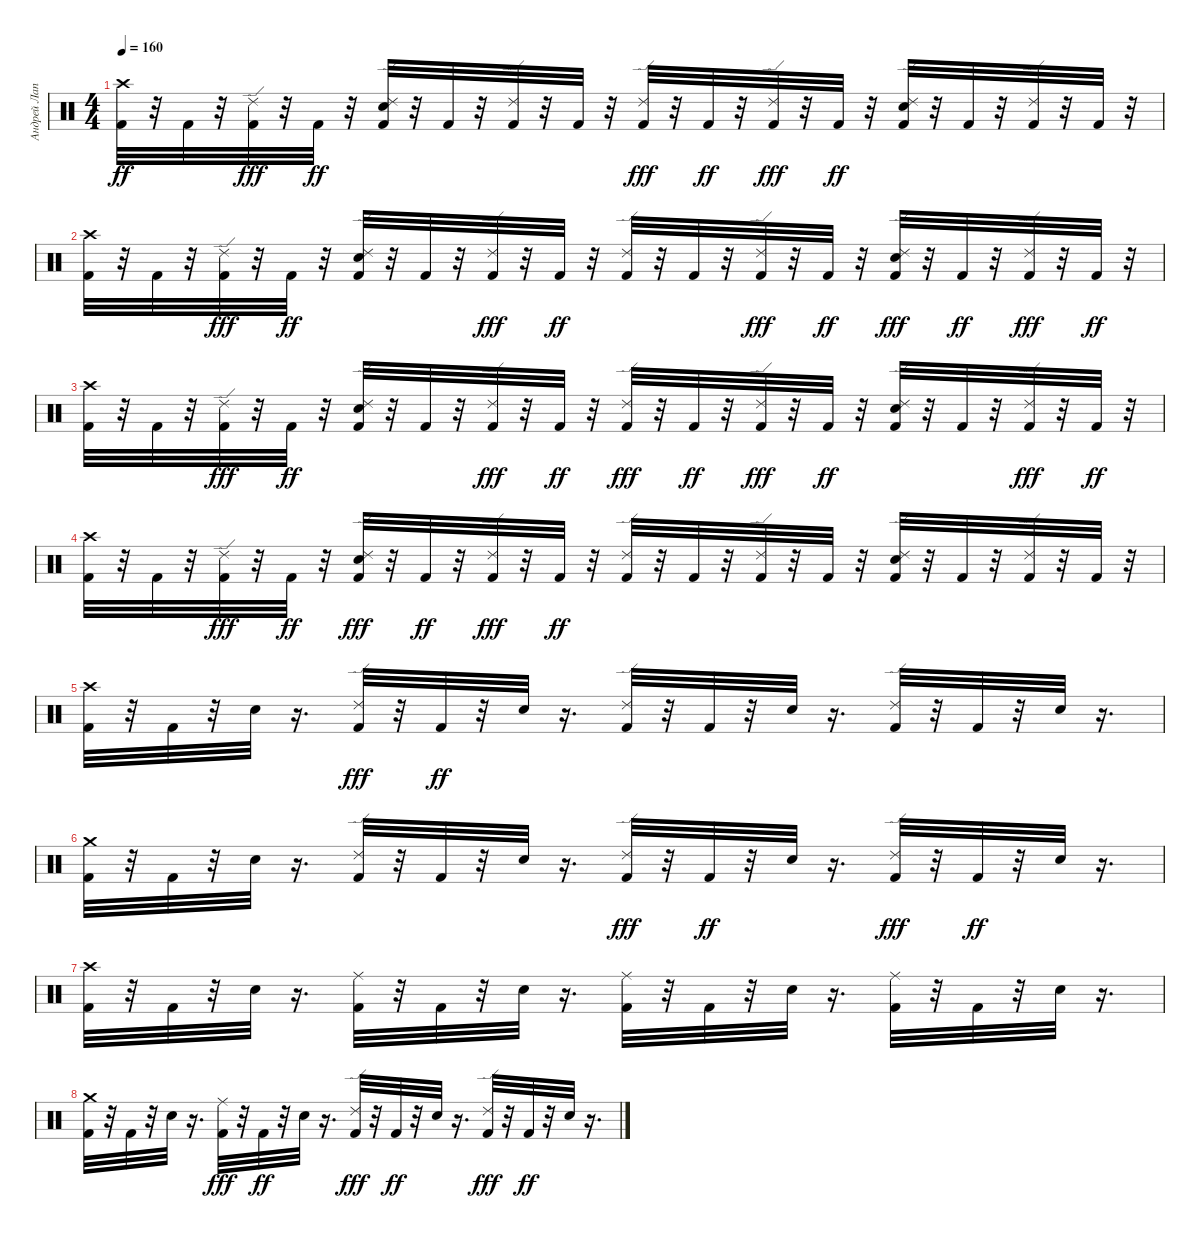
\track ("Андрей Лаптев" "Андрей Лап") {instrument percussion}
\staff {score}
\articulation defaults
\ts (4 4)
\tempo 160
\clef neutral
\ks c
("Crash high (hit)" "Kick (hit) 2").32{dy ff} r.32 "Kick (hit) 2".32 r.32 ("Kick (hit) 2" "Ride (edge) 2").32{dy fff} r.32 "Kick (hit) 2".32{dy ff} r.32 ("Ride (edge) 2" "Kick (hit) 2" "Electric Snare (hit)").32 r.32 "Kick (hit) 2".32 r.32 ("Ride (edge) 2" "Kick (hit) 2").32 r.32 "Kick (hit) 2".32 r.32 ("Kick (hit) 2" "Ride (edge) 2").32{dy fff} r.32 "Kick (hit) 2".32{dy ff} r.32 ("Kick (hit) 2" "Ride (edge) 2").32{dy fff} r.32 "Kick (hit) 2".32{dy ff} r.32 ("Ride (edge) 2" "Kick (hit) 2" "Electric Snare (hit)").32 r.32 "Kick (hit) 2".32 r.32 ("Ride (edge) 2" "Kick (hit) 2").32 r.32 "Kick (hit) 2".32 r.32 |
("Crash high (hit)" "Kick (hit) 2").32 r.32 "Kick (hit) 2".32 r.32 ("Kick (hit) 2" "Ride (edge) 2").32{dy fff} r.32 "Kick (hit) 2".32{dy ff} r.32 ("Electric Snare (hit)" "Ride (edge) 2" "Kick (hit) 2").32 r.32 "Kick (hit) 2".32 r.32 ("Kick (hit) 2" "Ride (edge) 2").32{dy fff} r.32 "Kick (hit) 2".32{dy ff} r.32 ("Ride (edge) 2" "Kick (hit) 2").32 r.32 "Kick (hit) 2".32 r.32 ("Kick (hit) 2" "Ride (edge) 2").32{dy fff} r.32 "Kick (hit) 2".32{dy ff} r.32 ("Kick (hit) 2" "Electric Snare (hit)" "Ride (edge) 2").32{dy fff} r.32 "Kick (hit) 2".32{dy ff} r.32 ("Kick (hit) 2" "Ride (edge) 2").32{dy fff} r.32 "Kick (hit) 2".32{dy ff} r.32 |
("Kick (hit) 2" "Crash high (hit)").32 r.32 "Kick (hit) 2".32 r.32 ("Kick (hit) 2" "Ride (edge) 2").32{dy fff} r.32 "Kick (hit) 2".32{dy ff} r.32 ("Ride (edge) 2" "Kick (hit) 2" "Electric Snare (hit)").32 r.32 "Kick (hit) 2".32 r.32 ("Kick (hit) 2" "Ride (edge) 2").32{dy fff} r.32 "Kick (hit) 2".32{dy ff} r.32 ("Kick (hit) 2" "Ride (edge) 2").32{dy fff} r.32 "Kick (hit) 2".32{dy ff} r.32 ("Kick (hit) 2" "Ride (edge) 2").32{dy fff} r.32 "Kick (hit) 2".32{dy ff} r.32 ("Ride (edge) 2" "Electric Snare (hit)" "Kick (hit) 2").32 r.32 "Kick (hit) 2".32 r.32 ("Kick (hit) 2" "Ride (edge) 2").32{dy fff} r.32 "Kick (hit) 2".32{dy ff} r.32 |
("Kick (hit) 2" "Crash high (hit)").32 r.32 "Kick (hit) 2".32 r.32 ("Kick (hit) 2" "Ride (edge) 2").32{dy fff} r.32 "Kick (hit) 2".32{dy ff} r.32 ("Kick (hit) 2" "Electric Snare (hit)" "Ride (edge) 2").32{dy fff} r.32 "Kick (hit) 2".32{dy ff} r.32 ("Kick (hit) 2" "Ride (edge) 2").32{dy fff} r.32 "Kick (hit) 2".32{dy ff} r.32 ("Ride (edge) 2" "Kick (hit) 2").32 r.32 "Kick (hit) 2".32 r.32 ("Ride (edge) 2" "Kick (hit) 2").32 r.32 "Kick (hit) 2".32 r.32 ("Ride (edge) 2" "Kick (hit) 2" "Electric Snare (hit)").32 r.32 "Kick (hit) 2".32 r.32 ("Ride (edge) 2" "Kick (hit) 2").32 r.32 "Kick (hit) 2".32 r.32 |
("Kick (hit) 2" "Crash high (hit)").32 r.32 "Kick (hit) 2".32 r.32 "Electric Snare (hit)".32 r.16{d} ("Kick (hit) 2" "Ride (edge) 2").32{dy fff} r.32 "Kick (hit) 2".32{dy ff} r.32 "Electric Snare (hit)".32 r.16{d} ("Ride (edge) 2" "Kick (hit) 2").32 r.32 "Kick (hit) 2".32 r.32 "Electric Snare (hit)".32 r.16{d} ("Ride (edge) 2" "Kick (hit) 2").32 r.32 "Kick (hit) 2".32 r.32 "Electric Snare (hit)".32 r.16{d} |
("Kick (hit) 2" "Crash medium (hit)").32 r.32 "Kick (hit) 2".32 r.32 "Electric Snare (hit)".32 r.16{d} ("Ride (edge) 2" "Kick (hit) 2").32 r.32 "Kick (hit) 2".32 r.32 "Electric Snare (hit)".32 r.16{d} ("Kick (hit) 2" "Ride (edge) 2").32{dy fff} r.32 "Kick (hit) 2".32{dy ff} r.32 "Electric Snare (hit)".32 r.16{d} ("Kick (hit) 2" "Ride (edge) 2").32{dy fff} r.32 "Kick (hit) 2".32{dy ff} r.32 "Electric Snare (hit)".32 r.16{d} |
("Crash high (hit)" "Kick (hit) 2").32 r.32 "Kick (hit) 2".32 r.32 "Electric Snare (hit)".32 r.16{d} ("Ride (middle)" "Kick (hit) 2").32 r.32 "Kick (hit) 2".32 r.32 "Electric Snare (hit)".32 r.16{d} ("Ride (middle)" "Kick (hit) 2").32 r.32 "Kick (hit) 2".32 r.32 "Electric Snare (hit)".32 r.16{d} ("Ride (middle)" "Kick (hit) 2").32 r.32 "Kick (hit) 2".32 r.32 "Electric Snare (hit)".32 r.16{d} |
("Crash medium (hit)" "Kick (hit) 2").32 r.32 "Kick (hit) 2".32 r.32 "Electric Snare (hit)".32 r.16{d} ("Kick (hit) 2" "Ride (middle)").32{dy fff} r.32 "Kick (hit) 2".32{dy ff} r.32 "Electric Snare (hit)".32 r.16{d} ("Kick (hit) 2" "Ride (edge) 2").32{dy fff} r.32 "Kick (hit) 2".32{dy ff} r.32 "Electric Snare (hit)".32 r.16{d} ("Kick (hit) 2" "Ride (edge) 2").32{dy fff} r.32 "Kick (hit) 2".32{dy ff} r.32 "Electric Snare (hit)".32 r.16{d}
